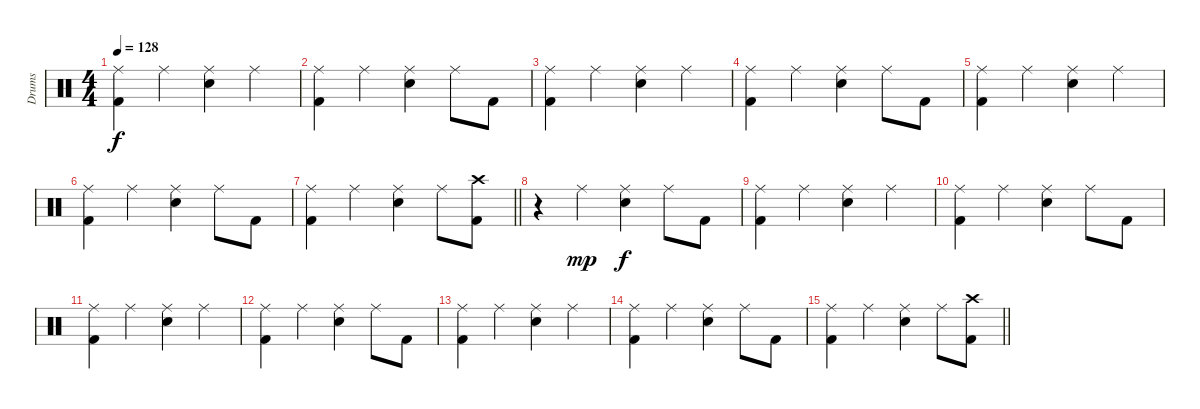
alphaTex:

\track ("Drums" "Drums") {instrument percussion}
\staff {score}
\articulation defaults
\ts (4 4)
\tempo 128
\clef neutral
\ks c
("Ride (middle)" "Kick (hit) 2").4{dy f} "Ride (middle)".4 ("Ride (middle)" "Snare (hit) 2").4 "Ride (middle)".4 |
("Ride (middle)" "Kick (hit) 2").4 "Ride (middle)".4 ("Ride (middle)" "Snare (hit) 2").4 "Ride (middle)".8 "Kick (hit) 2".8 |
("Ride (middle)" "Kick (hit) 2").4 "Ride (middle)".4 ("Ride (middle)" "Snare (hit) 2").4 "Ride (middle)".4 |
("Ride (middle)" "Kick (hit) 2").4 "Ride (middle)".4 ("Ride (middle)" "Snare (hit) 2").4 "Ride (middle)".8 "Kick (hit) 2".8 |
("Ride (middle)" "Kick (hit) 2").4 "Ride (middle)".4 ("Ride (middle)" "Snare (hit) 2").4 "Ride (middle)".4 |
("Ride (middle)" "Kick (hit) 2").4 "Ride (middle)".4 ("Ride (middle)" "Snare (hit) 2").4 "Ride (middle)".8 "Kick (hit) 2".8 |
\barLineRight lightlight
("Ride (middle)" "Kick (hit) 2").4 "Ride (middle)".4 ("Ride (middle)" "Snare (hit) 2").4 "Ride (middle)".8 ("Crash high (hit)" "Kick (hit) 2").8 |
r.4 "Ride (middle)".4{dy mp} ("Ride (middle)" "Snare (hit) 2").4{dy f} "Ride (middle)".8 "Kick (hit) 2".8 |
("Ride (middle)" "Kick (hit) 2").4 "Ride (middle)".4 ("Ride (middle)" "Snare (hit) 2").4 "Ride (middle)".4 |
("Ride (middle)" "Kick (hit) 2").4 "Ride (middle)".4 ("Ride (middle)" "Snare (hit) 2").4 "Ride (middle)".8 "Kick (hit) 2".8 |
("Ride (middle)" "Kick (hit) 2").4 "Ride (middle)".4 ("Ride (middle)" "Snare (hit) 2").4 "Ride (middle)".4 |
("Ride (middle)" "Kick (hit) 2").4 "Ride (middle)".4 ("Ride (middle)" "Snare (hit) 2").4 "Ride (middle)".8 "Kick (hit) 2".8 |
("Ride (middle)" "Kick (hit) 2").4 "Ride (middle)".4 ("Ride (middle)" "Snare (hit) 2").4 "Ride (middle)".4 |
("Ride (middle)" "Kick (hit) 2").4 "Ride (middle)".4 ("Ride (middle)" "Snare (hit) 2").4 "Ride (middle)".8 "Kick (hit) 2".8 |
\barLineRight lightlight
("Ride (middle)" "Kick (hit) 2").4 "Ride (middle)".4 ("Ride (middle)" "Snare (hit) 2").4 "Ride (middle)".8 ("Crash high (hit)" "Kick (hit) 2").8
